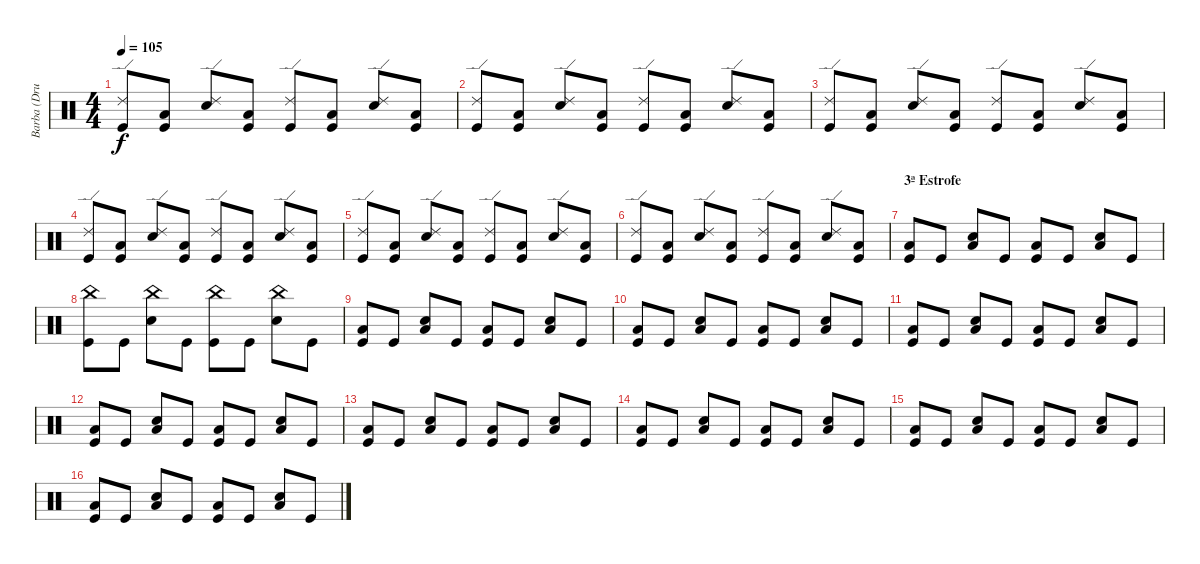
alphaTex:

\track ("Barba (Drums)" "Barba (Dru") {instrument percussion}
\staff {score}
\articulation defaults
\ts (4 4)
\tempo 105
\clef neutral
\ks c
("Ride (edge) 2" "Kick (hit)").8{dy f volume 13} ("Low Floor Tom (hit)" "Kick (hit)").8 ("Ride (edge) 2" "Electric Snare (hit)").8 ("Low Floor Tom (hit)" "Kick (hit)").8 ("Ride (edge) 2" "Kick (hit)").8 ("Low Floor Tom (hit)" "Kick (hit)").8 ("Ride (edge) 2" "Electric Snare (hit)").8 ("Low Floor Tom (hit)" "Kick (hit)").8 |
("Ride (edge) 2" "Kick (hit)").8 ("Low Floor Tom (hit)" "Kick (hit)").8 ("Ride (edge) 2" "Electric Snare (hit)").8 ("Low Floor Tom (hit)" "Kick (hit)").8 ("Ride (edge) 2" "Kick (hit)").8 ("Low Floor Tom (hit)" "Kick (hit)").8 ("Ride (edge) 2" "Electric Snare (hit)").8 ("Low Floor Tom (hit)" "Kick (hit)").8 |
("Ride (edge) 2" "Kick (hit)").8{volume 13} ("Low Floor Tom (hit)" "Kick (hit)").8 ("Ride (edge) 2" "Electric Snare (hit)").8 ("Low Floor Tom (hit)" "Kick (hit)").8 ("Ride (edge) 2" "Kick (hit)").8 ("Low Floor Tom (hit)" "Kick (hit)").8 ("Ride (edge) 2" "Electric Snare (hit)").8 ("Low Floor Tom (hit)" "Kick (hit)").8 |
("Ride (edge) 2" "Kick (hit)").8 ("Low Floor Tom (hit)" "Kick (hit)").8 ("Ride (edge) 2" "Electric Snare (hit)").8 ("Low Floor Tom (hit)" "Kick (hit)").8 ("Ride (edge) 2" "Kick (hit)").8 ("Low Floor Tom (hit)" "Kick (hit)").8 ("Ride (edge) 2" "Electric Snare (hit)").8 ("Low Floor Tom (hit)" "Kick (hit)").8 |
("Ride (edge) 2" "Kick (hit)").8{volume 13} ("Low Floor Tom (hit)" "Kick (hit)").8 ("Ride (edge) 2" "Electric Snare (hit)").8 ("Low Floor Tom (hit)" "Kick (hit)").8 ("Ride (edge) 2" "Kick (hit)").8 ("Low Floor Tom (hit)" "Kick (hit)").8 ("Ride (edge) 2" "Electric Snare (hit)").8 ("Low Floor Tom (hit)" "Kick (hit)").8 |
("Ride (edge) 2" "Kick (hit)").8 ("Low Floor Tom (hit)" "Kick (hit)").8 ("Ride (edge) 2" "Electric Snare (hit)").8 ("Low Floor Tom (hit)" "Kick (hit)").8 ("Ride (edge) 2" "Kick (hit)").8 ("Low Floor Tom (hit)" "Kick (hit)").8 ("Ride (edge) 2" "Electric Snare (hit)").8 ("Low Floor Tom (hit)" "Kick (hit)").8 |
\section ("" "3ª Estrofe")
("Low Floor Tom (hit)" "Kick (hit)").8{volume 13} "Kick (hit)".8 ("Low Floor Tom (hit)" "Electric Snare (hit)").8 "Kick (hit)".8 ("Low Floor Tom (hit)" "Kick (hit)").8 "Kick (hit)".8 ("Low Floor Tom (hit)" "Electric Snare (hit)").8 "Kick (hit)".8 |
("China (hit)" "Kick (hit)").8 "Kick (hit)".8 ("China (hit)" "Electric Snare (hit)").8 "Kick (hit)".8 ("China (hit)" "Kick (hit)").8 "Kick (hit)".8 ("China (hit)" "Electric Snare (hit)").8 "Kick (hit)".8 |
("Low Floor Tom (hit)" "Kick (hit)").8 "Kick (hit)".8 ("Low Floor Tom (hit)" "Electric Snare (hit)").8 "Kick (hit)".8 ("Low Floor Tom (hit)" "Kick (hit)").8 "Kick (hit)".8 ("Low Floor Tom (hit)" "Electric Snare (hit)").8 "Kick (hit)".8 |
("Low Floor Tom (hit)" "Kick (hit)").8 "Kick (hit)".8 ("Low Floor Tom (hit)" "Electric Snare (hit)").8 "Kick (hit)".8 ("Low Floor Tom (hit)" "Kick (hit)").8 "Kick (hit)".8 ("Low Floor Tom (hit)" "Electric Snare (hit)").8 "Kick (hit)".8 |
("Low Floor Tom (hit)" "Kick (hit)").8 "Kick (hit)".8 ("Low Floor Tom (hit)" "Electric Snare (hit)").8 "Kick (hit)".8 ("Low Floor Tom (hit)" "Kick (hit)").8 "Kick (hit)".8 ("Low Floor Tom (hit)" "Electric Snare (hit)").8 "Kick (hit)".8 |
("Low Floor Tom (hit)" "Kick (hit)").8 "Kick (hit)".8 ("Low Floor Tom (hit)" "Electric Snare (hit)").8 "Kick (hit)".8 ("Low Floor Tom (hit)" "Kick (hit)").8 "Kick (hit)".8 ("Low Floor Tom (hit)" "Electric Snare (hit)").8 "Kick (hit)".8 |
("Low Floor Tom (hit)" "Kick (hit)").8 "Kick (hit)".8 ("Low Floor Tom (hit)" "Electric Snare (hit)").8 "Kick (hit)".8 ("Low Floor Tom (hit)" "Kick (hit)").8 "Kick (hit)".8 ("Low Floor Tom (hit)" "Electric Snare (hit)").8 "Kick (hit)".8 |
("Low Floor Tom (hit)" "Kick (hit)").8 "Kick (hit)".8 ("Low Floor Tom (hit)" "Electric Snare (hit)").8 "Kick (hit)".8 ("Low Floor Tom (hit)" "Kick (hit)").8 "Kick (hit)".8 ("Low Floor Tom (hit)" "Electric Snare (hit)").8 "Kick (hit)".8 |
("Low Floor Tom (hit)" "Kick (hit)").8 "Kick (hit)".8 ("Low Floor Tom (hit)" "Electric Snare (hit)").8 "Kick (hit)".8 ("Low Floor Tom (hit)" "Kick (hit)").8 "Kick (hit)".8 ("Low Floor Tom (hit)" "Electric Snare (hit)").8 "Kick (hit)".8 |
("Low Floor Tom (hit)" "Kick (hit)").8 "Kick (hit)".8 ("Low Floor Tom (hit)" "Electric Snare (hit)").8 "Kick (hit)".8 ("Low Floor Tom (hit)" "Kick (hit)").8 "Kick (hit)".8 ("Low Floor Tom (hit)" "Electric Snare (hit)").8 "Kick (hit)".8
